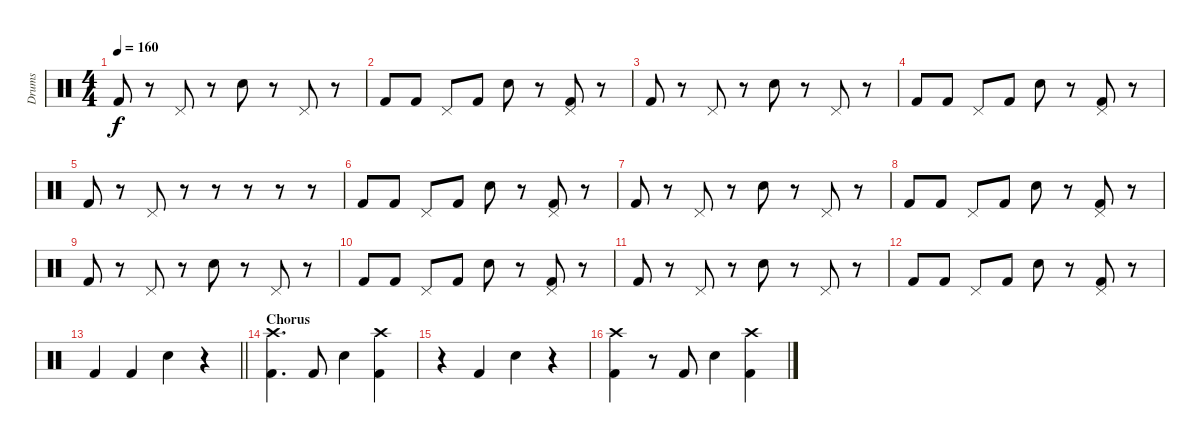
\track ("Drums" "Drums") {instrument percussion}
\staff {score}
\articulation defaults
\ts (4 4)
\tempo 160
\clef neutral
\ks c "Kick (hit) 2".8{dy f}
r.8 "Pedal Hi-Hat (hit)".8 r.8 "Snare (hit) 2".8 r.8 "Pedal Hi-Hat (hit)".8 r.8 |
"Kick (hit) 2".8 "Kick (hit) 2".8 "Pedal Hi-Hat (hit)".8 "Kick (hit) 2".8 "Snare (hit) 2".8 r.8 ("Kick (hit) 2" "Pedal Hi-Hat (hit)").8 r.8 |
"Kick (hit) 2".8 r.8 "Pedal Hi-Hat (hit)".8 r.8 "Snare (hit) 2".8 r.8 "Pedal Hi-Hat (hit)".8 r.8 |
"Kick (hit) 2".8 "Kick (hit) 2".8 "Pedal Hi-Hat (hit)".8 "Kick (hit) 2".8 "Snare (hit) 2".8 r.8 ("Kick (hit) 2" "Pedal Hi-Hat (hit)").8 r.8 |
"Kick (hit) 2".8 r.8 "Pedal Hi-Hat (hit)".8 r.8 r.8 r.8 r.8 r.8 |
"Kick (hit) 2".8 "Kick (hit) 2".8 "Pedal Hi-Hat (hit)".8 "Kick (hit) 2".8 "Snare (hit) 2".8 r.8 ("Kick (hit) 2" "Pedal Hi-Hat (hit)").8 r.8 |
"Kick (hit) 2".8 r.8 "Pedal Hi-Hat (hit)".8 r.8 "Snare (hit) 2".8 r.8 "Pedal Hi-Hat (hit)".8 r.8 |
"Kick (hit) 2".8 "Kick (hit) 2".8 "Pedal Hi-Hat (hit)".8 "Kick (hit) 2".8 "Snare (hit) 2".8 r.8 ("Kick (hit) 2" "Pedal Hi-Hat (hit)").8 r.8 |
"Kick (hit) 2".8 r.8 "Pedal Hi-Hat (hit)".8 r.8 "Snare (hit) 2".8 r.8 "Pedal Hi-Hat (hit)".8 r.8 |
"Kick (hit) 2".8 "Kick (hit) 2".8 "Pedal Hi-Hat (hit)".8 "Kick (hit) 2".8 "Snare (hit) 2".8 r.8 ("Kick (hit) 2" "Pedal Hi-Hat (hit)").8 r.8 |
"Kick (hit) 2".8 r.8 "Pedal Hi-Hat (hit)".8 r.8 "Snare (hit) 2".8 r.8 "Pedal Hi-Hat (hit)".8 r.8 |
"Kick (hit) 2".8 "Kick (hit) 2".8 "Pedal Hi-Hat (hit)".8 "Kick (hit) 2".8 "Snare (hit) 2".8 r.8 ("Kick (hit) 2" "Pedal Hi-Hat (hit)").8 r.8 |
\barLineRight lightlight "Kick (hit) 2".4 "Kick (hit) 2".4 "Snare (hit) 2".4
r.4 |
\section ("" "Chorus")
("Kick (hit) 2" "Crash high (hit)").4{d} "Kick (hit) 2".8 "Snare (hit) 2".4 ("Kick (hit) 2" "Crash high (hit)").4 |
r.4 "Kick (hit) 2".4 "Snare (hit) 2".4 r.4 |
("Kick (hit) 2" "Crash high (hit)").4 r.8 "Kick (hit) 2".8 "Snare (hit) 2".4 ("Kick (hit) 2" "Crash high (hit)").4
